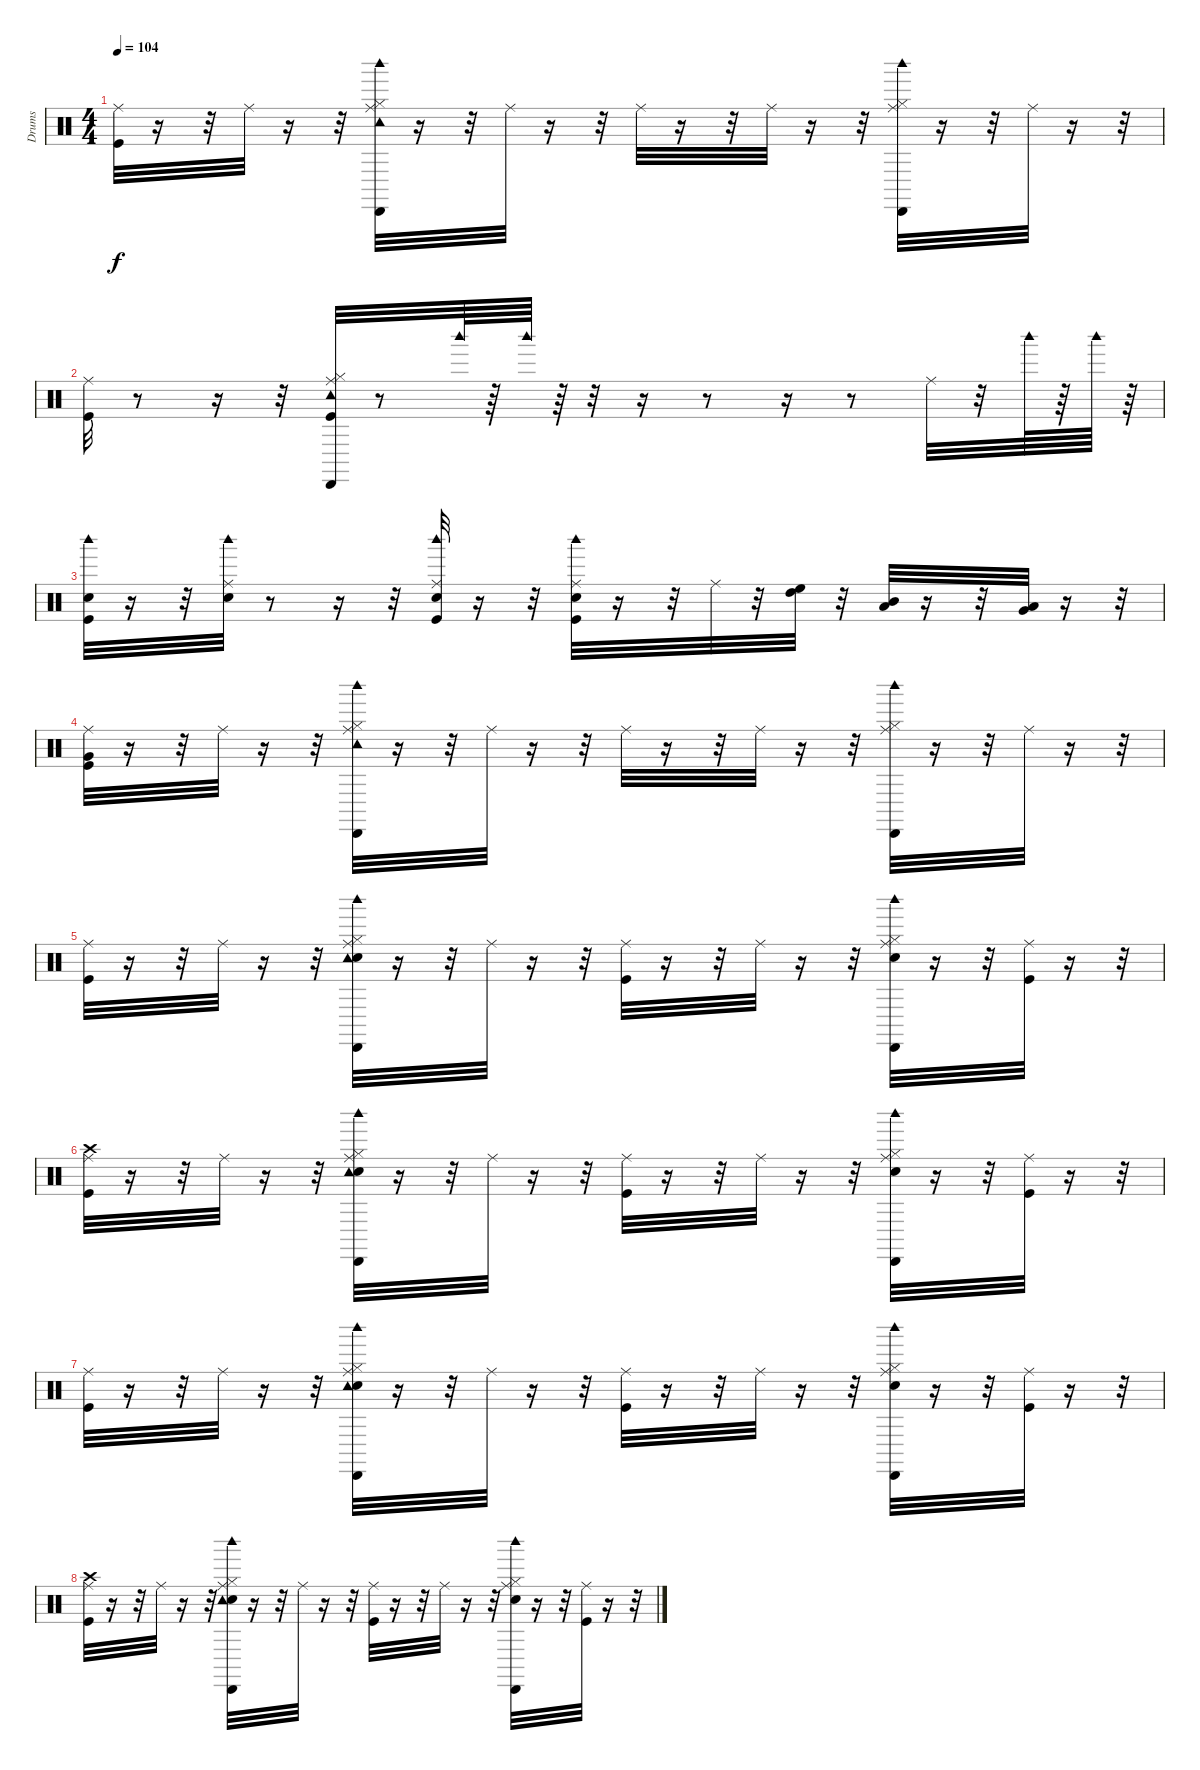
\track ("Drums" "Drums") {instrument percussion}
\staff {score}
\articulation defaults
\ts (4 4)
\tempo 104
\clef neutral
\ks c
("Kick (hit)" "Ride (middle)").32{dy f} r.16 r.32 "Ride (middle)".32 r.16 r.32 ("Hi-Hat (closed)" "Ride (middle)" "Tambourine (hit)" "Cabasa (hit)" "Woodblock high (hit)").32 r.16 r.32 "Ride (middle)".32 r.16 r.32 "Ride (middle)".32 r.16 r.32 "Ride (middle)".32 r.16 r.32 ("Hi-Hat (closed)" "Ride (middle)" "Cabasa (hit)" "Woodblock high (hit)").32 r.16 r.32 "Ride (middle)".32 r.16 r.32 |
("Kick (hit)" "Ride (middle)").32 r.8 r.16 r.32 ("Kick (hit)" "Hi-Hat (closed)" "Ride (middle)" "Tambourine (hit)" "Cabasa (hit)").32 r.8 "Woodblock high (hit)".64 r.64 "Woodblock high (hit)".64 r.64 r.32 r.16 r.8 r.16 r.8 "Ride (middle)".32 r.32 "Woodblock high (hit)".64 r.64 "Woodblock high (hit)".64 r.64 |
("Kick (hit)" "Snare (hit) 2" "Woodblock high (hit)").32 r.16 r.32 ("Snare (hit) 2" "Ride (middle)" "Woodblock high (hit)").32 r.8 r.16 r.32 ("Kick (hit)" "Snare (hit) 2" "Ride (middle)" "Woodblock high (hit)").32 r.16 r.32 ("Kick (hit)" "Snare (hit) 2" "Ride (middle)" "Woodblock high (hit)").32 r.16 r.32 "Ride (middle)".32 r.32 ("High Tom (hit)" "High Floor Tom (hit)").32 r.32 ("Low Tom (hit)" "Mid Tom (hit)").32 r.16 r.32 ("Low Floor Tom (hit)" "Very Low Tom (hit)").32 r.16 r.32 |
("Kick (hit)" "Very Low Tom (hit)" "Ride (middle)").32 r.16 r.32 "Ride (middle)".32 r.16 r.32 ("Hi-Hat (closed)" "Ride (middle)" "Tambourine (hit)" "Cabasa (hit)" "Woodblock high (hit)").32 r.16 r.32 "Ride (middle)".32 r.16 r.32 "Ride (middle)".32 r.16 r.32 "Ride (middle)".32 r.16 r.32 ("Hi-Hat (closed)" "Ride (middle)" "Cabasa (hit)" "Woodblock high (hit)").32 r.16 r.32 "Ride (middle)".32 r.16 r.32 |
("Kick (hit)" "Ride (middle)").32 r.16 r.32 "Ride (middle)".32 r.16 r.32 ("Snare (hit) 2" "Hi-Hat (closed)" "Ride (middle)" "Tambourine (hit)" "Cabasa (hit)" "Woodblock high (hit)").32 r.16 r.32 "Ride (middle)".32 r.16 r.32 ("Kick (hit)" "Ride (middle)").32 r.16 r.32 "Ride (middle)".32 r.16 r.32 ("Snare (hit) 2" "Hi-Hat (closed)" "Ride (middle)" "Cabasa (hit)" "Woodblock high (hit)").32 r.16 r.32 ("Kick (hit)" "Ride (middle)").32 r.16 r.32 |
("Kick (hit)" "Crash high (hit)" "Ride (middle)").32 r.16 r.32 "Ride (middle)".32 r.16 r.32 ("Snare (hit) 2" "Hi-Hat (closed)" "Ride (middle)" "Tambourine (hit)" "Cabasa (hit)" "Woodblock high (hit)").32 r.16 r.32 "Ride (middle)".32 r.16 r.32 ("Kick (hit)" "Ride (middle)").32 r.16 r.32 "Ride (middle)".32 r.16 r.32 ("Snare (hit) 2" "Hi-Hat (closed)" "Ride (middle)" "Cabasa (hit)" "Woodblock high (hit)").32 r.16 r.32 ("Kick (hit)" "Ride (middle)").32 r.16 r.32 |
("Kick (hit)" "Ride (middle)").32 r.16 r.32 "Ride (middle)".32 r.16 r.32 ("Snare (hit) 2" "Hi-Hat (closed)" "Ride (middle)" "Tambourine (hit)" "Cabasa (hit)" "Woodblock high (hit)").32 r.16 r.32 "Ride (middle)".32 r.16 r.32 ("Kick (hit)" "Ride (middle)").32 r.16 r.32 "Ride (middle)".32 r.16 r.32 ("Snare (hit) 2" "Hi-Hat (closed)" "Ride (middle)" "Cabasa (hit)" "Woodblock high (hit)").32 r.16 r.32 ("Kick (hit)" "Ride (middle)").32 r.16 r.32 |
("Kick (hit)" "Crash high (hit)" "Ride (middle)").32 r.16 r.32 "Ride (middle)".32 r.16 r.32 ("Snare (hit) 2" "Hi-Hat (closed)" "Ride (middle)" "Tambourine (hit)" "Cabasa (hit)" "Woodblock high (hit)").32 r.16 r.32 "Ride (middle)".32 r.16 r.32 ("Kick (hit)" "Ride (middle)").32 r.16 r.32 "Ride (middle)".32 r.16 r.32 ("Snare (hit) 2" "Hi-Hat (closed)" "Ride (middle)" "Cabasa (hit)" "Woodblock high (hit)").32 r.16 r.32 ("Kick (hit)" "Ride (middle)").32 r.16 r.32
